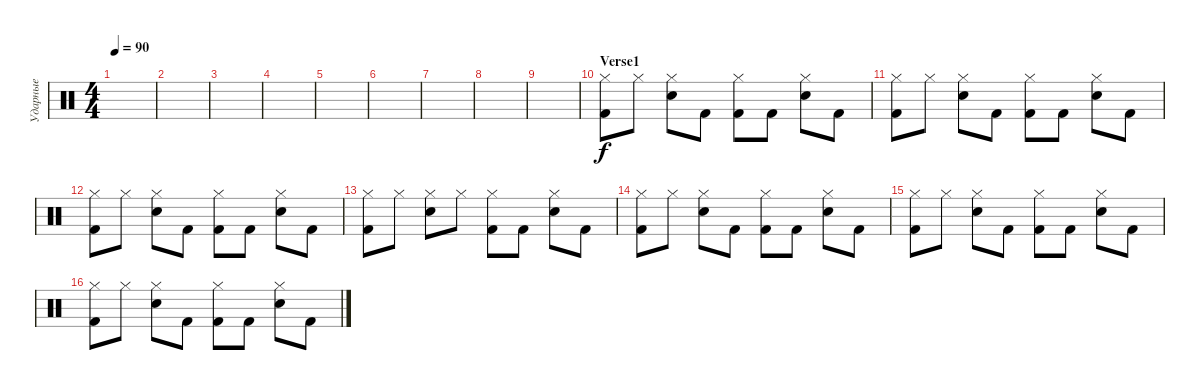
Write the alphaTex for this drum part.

\track ("Ударные" "Ударные") {instrument percussion}
\staff {score}
\articulation defaults
\ts (4 4)
\tempo 90
\clef neutral
\ks c
|
|
|
|
|
|
|
|
|
\section ("" "Verse1")
("Hi-Hat (closed)" "Kick (hit) 2").8 "Hi-Hat (closed)".8 ("Hi-Hat (closed)" "Snare (hit) 2").8 "Kick (hit) 2".8 ("Hi-Hat (closed)" "Kick (hit) 2").8 "Kick (hit) 2".8 ("Hi-Hat (closed)" "Snare (hit) 2").8 "Kick (hit) 2".8 |
("Hi-Hat (closed)" "Kick (hit) 2").8 "Hi-Hat (closed)".8 ("Hi-Hat (closed)" "Snare (hit) 2").8 "Kick (hit) 2".8 ("Hi-Hat (closed)" "Kick (hit) 2").8 "Kick (hit) 2".8 ("Hi-Hat (closed)" "Snare (hit) 2").8 "Kick (hit) 2".8 |
("Hi-Hat (closed)" "Kick (hit) 2").8 "Hi-Hat (closed)".8 ("Hi-Hat (closed)" "Snare (hit) 2").8 "Kick (hit) 2".8 ("Hi-Hat (closed)" "Kick (hit) 2").8 "Kick (hit) 2".8 ("Hi-Hat (closed)" "Snare (hit) 2").8 "Kick (hit) 2".8 |
("Hi-Hat (closed)" "Kick (hit) 2").8 "Hi-Hat (closed)".8 ("Snare (hit) 2" "Hi-Hat (closed)").8 "Hi-Hat (closed)".8 ("Hi-Hat (closed)" "Kick (hit) 2").8 "Kick (hit) 2".8 ("Hi-Hat (closed)" "Snare (hit) 2").8 "Kick (hit) 2".8 |
("Hi-Hat (closed)" "Kick (hit) 2").8 "Hi-Hat (closed)".8 ("Hi-Hat (closed)" "Snare (hit) 2").8 "Kick (hit) 2".8 ("Hi-Hat (closed)" "Kick (hit) 2").8 "Kick (hit) 2".8 ("Hi-Hat (closed)" "Snare (hit) 2").8 "Kick (hit) 2".8 |
("Hi-Hat (closed)" "Kick (hit) 2").8 "Hi-Hat (closed)".8 ("Hi-Hat (closed)" "Snare (hit) 2").8 "Kick (hit) 2".8 ("Hi-Hat (closed)" "Kick (hit) 2").8 "Kick (hit) 2".8 ("Hi-Hat (closed)" "Snare (hit) 2").8 "Kick (hit) 2".8 |
("Hi-Hat (closed)" "Kick (hit) 2").8 "Hi-Hat (closed)".8 ("Hi-Hat (closed)" "Snare (hit) 2").8 "Kick (hit) 2".8 ("Hi-Hat (closed)" "Kick (hit) 2").8 "Kick (hit) 2".8 ("Hi-Hat (closed)" "Snare (hit) 2").8 "Kick (hit) 2".8
